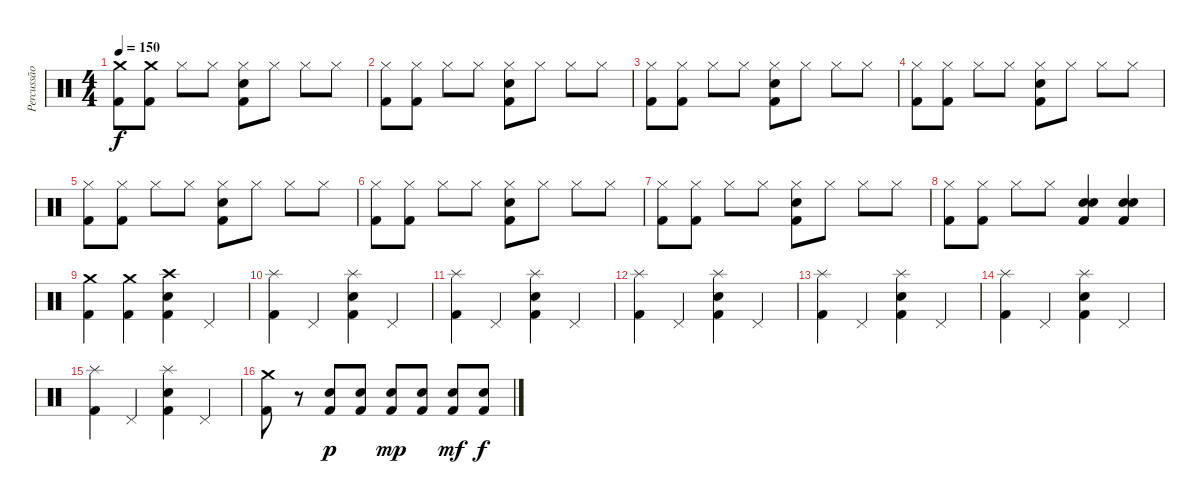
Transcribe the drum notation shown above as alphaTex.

\track ("Percussão" "Percussão") {instrument percussion}
\staff {score}
\articulation defaults
\ts (4 4)
\tempo 150
\clef neutral
\ks c
("Crash medium (hit)" "Kick (hit) 2").8{dy f} ("Crash medium (hit)" "Kick (hit) 2").8 "Hi-Hat (closed)".8 "Hi-Hat (closed)".8 ("Hi-Hat (closed)" "Snare (hit) 2" "Kick (hit) 2").8 "Hi-Hat (closed)".8 "Hi-Hat (closed)".8 "Hi-Hat (closed)".8 |
("Hi-Hat (closed)" "Kick (hit) 2").8 ("Hi-Hat (closed)" "Kick (hit) 2").8 "Hi-Hat (closed)".8 "Hi-Hat (closed)".8 ("Hi-Hat (closed)" "Snare (hit) 2" "Kick (hit) 2").8 "Hi-Hat (closed)".8 "Hi-Hat (closed)".8 "Hi-Hat (closed)".8 |
("Hi-Hat (closed)" "Kick (hit) 2").8 ("Hi-Hat (closed)" "Kick (hit) 2").8 "Hi-Hat (closed)".8 "Hi-Hat (closed)".8 ("Hi-Hat (closed)" "Snare (hit) 2" "Kick (hit) 2").8 "Hi-Hat (closed)".8 "Hi-Hat (closed)".8 "Hi-Hat (closed)".8 |
("Hi-Hat (closed)" "Kick (hit) 2").8 ("Hi-Hat (closed)" "Kick (hit) 2").8 "Hi-Hat (closed)".8 "Hi-Hat (closed)".8 ("Hi-Hat (closed)" "Snare (hit) 2" "Kick (hit) 2").8 "Hi-Hat (closed)".8 "Hi-Hat (closed)".8 "Hi-Hat (closed)".8 |
("Hi-Hat (closed)" "Kick (hit) 2").8 ("Hi-Hat (closed)" "Kick (hit) 2").8 "Hi-Hat (closed)".8 "Hi-Hat (closed)".8 ("Hi-Hat (closed)" "Snare (hit) 2" "Kick (hit) 2").8 "Hi-Hat (closed)".8 "Hi-Hat (closed)".8 "Hi-Hat (closed)".8 |
("Hi-Hat (closed)" "Kick (hit) 2").8 ("Hi-Hat (closed)" "Kick (hit) 2").8 "Hi-Hat (closed)".8 "Hi-Hat (closed)".8 ("Hi-Hat (closed)" "Snare (hit) 2" "Kick (hit) 2").8 "Hi-Hat (closed)".8 "Hi-Hat (closed)".8 "Hi-Hat (closed)".8 |
("Hi-Hat (closed)" "Kick (hit) 2").8 ("Hi-Hat (closed)" "Kick (hit) 2").8 "Hi-Hat (closed)".8 "Hi-Hat (closed)".8 ("Hi-Hat (closed)" "Snare (hit) 2" "Kick (hit) 2").8 "Hi-Hat (closed)".8 "Hi-Hat (closed)".8 "Hi-Hat (closed)".8 |
("Hi-Hat (closed)" "Kick (hit) 2").8 ("Hi-Hat (closed)" "Kick (hit) 2").8 "Hi-Hat (closed)".8 "Hi-Hat (closed)".8 ("Snare (hit) 2" "Snare (hit) 2" "Kick (hit) 2").4{bd 120} ("Snare (hit) 2" "Snare (hit) 2" "Kick (hit) 2").4 |
("Crash medium (hit)" "Kick (hit) 2").4 ("Crash medium (hit)" "Kick (hit) 2").4 ("Crash high (hit)" "Snare (hit) 2" "Kick (hit) 2").4 "Pedal Hi-Hat (hit)".4 |
("Splash (hit)" "Kick (hit) 2").4 "Pedal Hi-Hat (hit)".4 ("Splash (hit)" "Snare (hit) 2" "Kick (hit) 2").4 "Pedal Hi-Hat (hit)".4 |
("Splash (hit)" "Kick (hit) 2").4 "Pedal Hi-Hat (hit)".4 ("Splash (hit)" "Snare (hit) 2" "Kick (hit) 2").4 "Pedal Hi-Hat (hit)".4 |
("Splash (hit)" "Kick (hit) 2").4 "Pedal Hi-Hat (hit)".4 ("Splash (hit)" "Snare (hit) 2" "Kick (hit) 2").4 "Pedal Hi-Hat (hit)".4 |
("Splash (hit)" "Kick (hit) 2").4 "Pedal Hi-Hat (hit)".4 ("Splash (hit)" "Snare (hit) 2" "Kick (hit) 2").4 "Pedal Hi-Hat (hit)".4 |
("Splash (hit)" "Kick (hit) 2").4 "Pedal Hi-Hat (hit)".4 ("Splash (hit)" "Snare (hit) 2" "Kick (hit) 2").4 "Pedal Hi-Hat (hit)".4 |
("Splash (hit)" "Kick (hit) 2").4 "Pedal Hi-Hat (hit)".4 ("Splash (hit)" "Snare (hit) 2" "Kick (hit) 2").4 "Pedal Hi-Hat (hit)".4 |
("Crash medium (hit)" "Kick (hit) 2").8 r.8 ("Snare (hit) 2" "Kick (hit) 2").8{dy p} ("Snare (hit) 2" "Kick (hit) 2").8 ("Snare (hit) 2" "Kick (hit) 2").8{dy mp} ("Snare (hit) 2" "Kick (hit) 2").8 ("Snare (hit) 2" "Kick (hit) 2").8{dy mf} ("Snare (hit) 2" "Kick (hit) 2").8{dy f}
